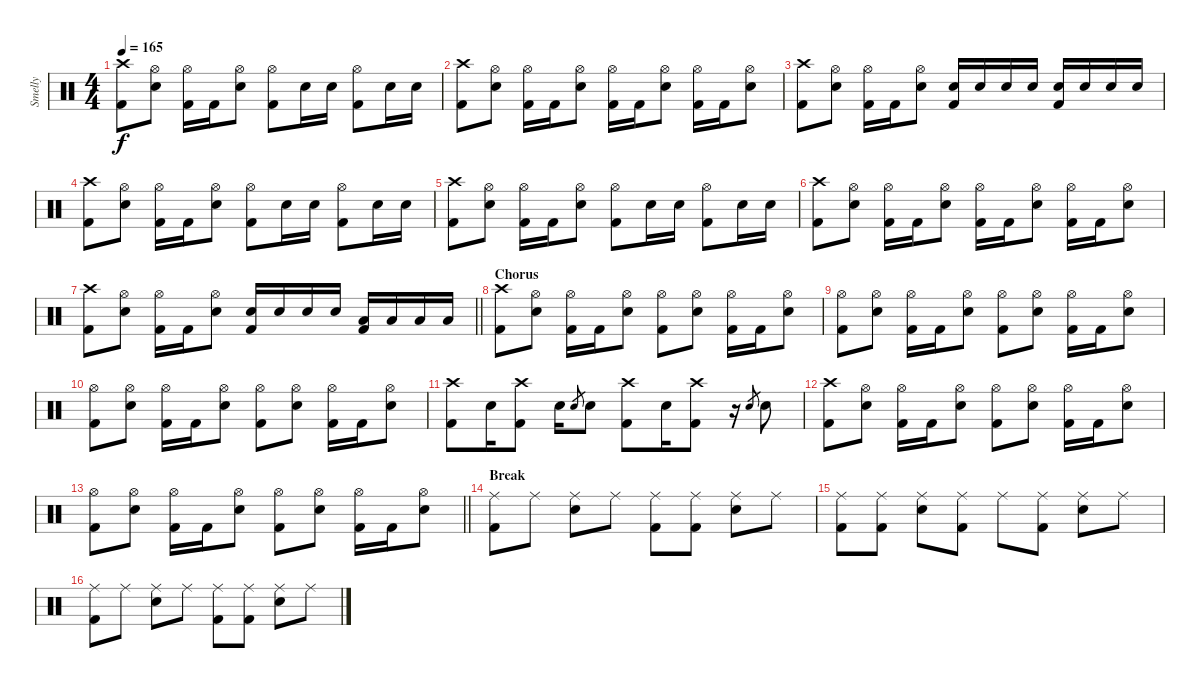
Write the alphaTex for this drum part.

\track ("Smelly" "Smelly") {instrument percussion}
\staff {score}
\articulation defaults
\ts (4 4)
\tempo 165
\clef neutral
\ks c
("Crash high (hit)" "Kick (hit) 2").8{dy f} ("Hi-Hat (open)" "Electric Snare (hit)").8 ("Hi-Hat (open)" "Kick (hit) 2").16 "Kick (hit) 2".16 ("Hi-Hat (open)" "Electric Snare (hit)").8 ("Hi-Hat (open)" "Kick (hit) 2").8 "Electric Snare (hit)".16 "Electric Snare (hit)".16 ("Hi-Hat (open)" "Kick (hit) 2").8 "Electric Snare (hit)".16 "Electric Snare (hit)".16 |
("Crash high (hit)" "Kick (hit) 2").8 ("Hi-Hat (open)" "Electric Snare (hit)").8 ("Hi-Hat (open)" "Kick (hit) 2").16 "Kick (hit) 2".16 ("Hi-Hat (open)" "Electric Snare (hit)").8 ("Hi-Hat (open)" "Kick (hit) 2").16 "Kick (hit) 2".16 ("Hi-Hat (open)" "Electric Snare (hit)").8 ("Hi-Hat (open)" "Kick (hit) 2").16 "Kick (hit) 2".16 ("Hi-Hat (open)" "Electric Snare (hit)").8 |
("Crash high (hit)" "Kick (hit) 2").8 ("Hi-Hat (open)" "Electric Snare (hit)").8 ("Hi-Hat (open)" "Kick (hit) 2").16 "Kick (hit) 2".16 ("Hi-Hat (open)" "Electric Snare (hit)").8 ("Electric Snare (hit)" "Kick (hit) 2").16 "Electric Snare (hit)".16 "Electric Snare (hit)".16 "Electric Snare (hit)".16 ("Electric Snare (hit)" "Kick (hit) 2").16 "Electric Snare (hit)".16 "Electric Snare (hit)".16 "Electric Snare (hit)".16 |
("Crash high (hit)" "Kick (hit) 2").8 ("Hi-Hat (open)" "Electric Snare (hit)").8 ("Hi-Hat (open)" "Kick (hit) 2").16 "Kick (hit) 2".16 ("Hi-Hat (open)" "Electric Snare (hit)").8 ("Hi-Hat (open)" "Kick (hit) 2").8 "Electric Snare (hit)".16 "Electric Snare (hit)".16 ("Hi-Hat (open)" "Kick (hit) 2").8 "Electric Snare (hit)".16 "Electric Snare (hit)".16 |
("Crash high (hit)" "Kick (hit) 2").8 ("Hi-Hat (open)" "Electric Snare (hit)").8 ("Hi-Hat (open)" "Kick (hit) 2").16 "Kick (hit) 2".16 ("Hi-Hat (open)" "Electric Snare (hit)").8 ("Hi-Hat (open)" "Kick (hit) 2").8 "Electric Snare (hit)".16 "Electric Snare (hit)".16 ("Hi-Hat (open)" "Kick (hit) 2").8 "Electric Snare (hit)".16 "Electric Snare (hit)".16 |
("Crash high (hit)" "Kick (hit) 2").8 ("Hi-Hat (open)" "Electric Snare (hit)").8 ("Hi-Hat (open)" "Kick (hit) 2").16 "Kick (hit) 2".16 ("Hi-Hat (open)" "Electric Snare (hit)").8 ("Hi-Hat (open)" "Kick (hit) 2").16 "Kick (hit) 2".16 ("Hi-Hat (open)" "Electric Snare (hit)").8 ("Hi-Hat (open)" "Kick (hit) 2").16 "Kick (hit) 2".16 ("Hi-Hat (open)" "Electric Snare (hit)").8 |
\barLineRight lightlight
("Crash high (hit)" "Kick (hit) 2").8 ("Hi-Hat (open)" "Electric Snare (hit)").8 ("Hi-Hat (open)" "Kick (hit) 2").16 "Kick (hit) 2".16 ("Hi-Hat (open)" "Electric Snare (hit)").8 ("Electric Snare (hit)" "Kick (hit) 2").16 "Electric Snare (hit)".16 "Electric Snare (hit)".16 "Electric Snare (hit)".16 ("Low Tom (hit)" "Kick (hit) 2").16 "Low Tom (hit)".16 "Low Tom (hit)".16 "Low Tom (hit)".16 |
\section ("" "Chorus")
("Crash high (hit)" "Kick (hit) 2").8 ("Hi-Hat (open)" "Electric Snare (hit)").8 ("Hi-Hat (open)" "Kick (hit) 2").16 "Kick (hit) 2".16 ("Hi-Hat (open)" "Electric Snare (hit)").8 ("Hi-Hat (open)" "Kick (hit) 2").8 ("Hi-Hat (open)" "Electric Snare (hit)").8 ("Hi-Hat (open)" "Kick (hit) 2").16 "Kick (hit) 2".16 ("Hi-Hat (open)" "Electric Snare (hit)").8 |
("Hi-Hat (open)" "Kick (hit) 2").8 ("Hi-Hat (open)" "Electric Snare (hit)").8 ("Hi-Hat (open)" "Kick (hit) 2").16 "Kick (hit) 2".16 ("Hi-Hat (open)" "Electric Snare (hit)").8 ("Hi-Hat (open)" "Kick (hit) 2").8 ("Hi-Hat (open)" "Electric Snare (hit)").8 ("Hi-Hat (open)" "Kick (hit) 2").16 "Kick (hit) 2".16 ("Hi-Hat (open)" "Electric Snare (hit)").8 |
("Hi-Hat (open)" "Kick (hit) 2").8 ("Hi-Hat (open)" "Electric Snare (hit)").8 ("Hi-Hat (open)" "Kick (hit) 2").16 "Kick (hit) 2".16 ("Hi-Hat (open)" "Electric Snare (hit)").8 ("Hi-Hat (open)" "Kick (hit) 2").8 ("Hi-Hat (open)" "Electric Snare (hit)").8 ("Hi-Hat (open)" "Kick (hit) 2").16 "Kick (hit) 2".16 ("Hi-Hat (open)" "Electric Snare (hit)").8 |
("Crash high (hit)" "Kick (hit) 2").8 "Electric Snare (hit)".16 ("Crash high (hit)" "Kick (hit) 2").8 "Electric Snare (hit)".16 "Electric Snare (hit)".8{gr} "Electric Snare (hit)".8 ("Crash high (hit)" "Kick (hit) 2").8 "Electric Snare (hit)".16 ("Crash high (hit)" "Kick (hit) 2").8 r.16 "Electric Snare (hit)".8{gr} "Electric Snare (hit)".8 |
("Crash high (hit)" "Kick (hit) 2").8 ("Hi-Hat (open)" "Electric Snare (hit)").8 ("Hi-Hat (open)" "Kick (hit) 2").16 "Kick (hit) 2".16 ("Hi-Hat (open)" "Electric Snare (hit)").8 ("Hi-Hat (open)" "Kick (hit) 2").8 ("Hi-Hat (open)" "Electric Snare (hit)").8 ("Hi-Hat (open)" "Kick (hit) 2").16 "Kick (hit) 2".16 ("Hi-Hat (open)" "Electric Snare (hit)").8 |
\barLineRight lightlight
("Hi-Hat (open)" "Kick (hit) 2").8 ("Hi-Hat (open)" "Electric Snare (hit)").8 ("Hi-Hat (open)" "Kick (hit) 2").16 "Kick (hit) 2".16 ("Hi-Hat (open)" "Electric Snare (hit)").8 ("Hi-Hat (open)" "Kick (hit) 2").8 ("Hi-Hat (open)" "Electric Snare (hit)").8 ("Hi-Hat (open)" "Kick (hit) 2").16 "Kick (hit) 2".16 ("Hi-Hat (open)" "Electric Snare (hit)").8 |
\section ("" "Break")
("Ride (middle)" "Kick (hit) 2").8 "Ride (middle)".8 ("Ride (middle)" "Electric Snare (hit)").8 "Ride (middle)".8 ("Ride (middle)" "Kick (hit) 2").8 ("Ride (middle)" "Kick (hit) 2").8 ("Ride (middle)" "Electric Snare (hit)").8 "Ride (middle)".8 |
("Ride (middle)" "Kick (hit) 2").8 ("Ride (middle)" "Kick (hit) 2").8 ("Ride (middle)" "Electric Snare (hit)").8 ("Ride (middle)" "Kick (hit) 2").8 "Ride (middle)".8 ("Ride (middle)" "Kick (hit) 2").8 ("Ride (middle)" "Electric Snare (hit)").8 "Ride (middle)".8 |
("Ride (middle)" "Kick (hit) 2").8 "Ride (middle)".8 ("Ride (middle)" "Electric Snare (hit)").8 "Ride (middle)".8 ("Ride (middle)" "Kick (hit) 2").8 ("Ride (middle)" "Kick (hit) 2").8 ("Ride (middle)" "Electric Snare (hit)").8 "Ride (middle)".8
